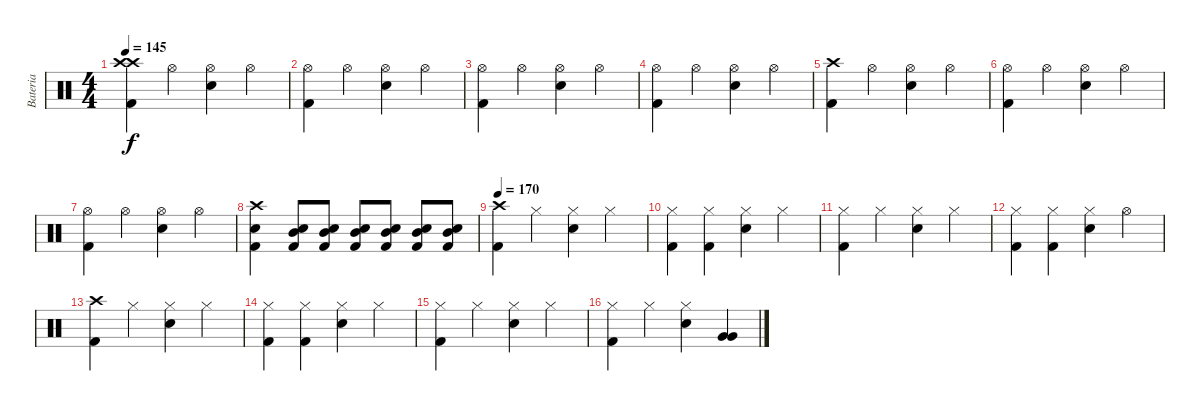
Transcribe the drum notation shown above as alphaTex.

\track ("Bateria" "Bateria") {instrument percussion}
\staff {score}
\articulation defaults
\ts (4 4)
\tempo 145
\clef neutral
\ks c
("Crash high (hit)" "Crash high (hit)" "Kick (hit) 2").4{dy f} "Hi-Hat (open)".4 ("Hi-Hat (open)" "Electric Snare (hit)").4 "Hi-Hat (open)".4 |
("Hi-Hat (open)" "Kick (hit) 2").4 "Hi-Hat (open)".4 ("Hi-Hat (open)" "Electric Snare (hit)").4 "Hi-Hat (open)".4 |
("Hi-Hat (open)" "Kick (hit) 2").4 "Hi-Hat (open)".4 ("Hi-Hat (open)" "Electric Snare (hit)").4 "Hi-Hat (open)".4 |
("Hi-Hat (open)" "Kick (hit) 2").4 "Hi-Hat (open)".4 ("Hi-Hat (open)" "Electric Snare (hit)").4 "Hi-Hat (open)".4 |
("Crash high (hit)" "Kick (hit) 2").4 "Hi-Hat (open)".4 ("Hi-Hat (open)" "Electric Snare (hit)").4 "Hi-Hat (open)".4 |
("Hi-Hat (open)" "Kick (hit) 2").4 "Hi-Hat (open)".4 ("Hi-Hat (open)" "Electric Snare (hit)").4 "Hi-Hat (open)".4 |
("Hi-Hat (open)" "Kick (hit) 2").4 "Hi-Hat (open)".4 ("Hi-Hat (open)" "Electric Snare (hit)").4 "Hi-Hat (open)".4 |
("Crash high (hit)" "Electric Snare (hit)" "Kick (hit) 2").4 ("Mid Tom (hit)" "Kick (hit) 2" "Electric Snare (hit)").8 ("Mid Tom (hit)" "Kick (hit) 2" "Electric Snare (hit)").8 ("Mid Tom (hit)" "Kick (hit) 2" "Electric Snare (hit)").8 ("Mid Tom (hit)" "Kick (hit) 2" "Electric Snare (hit)").8 ("Mid Tom (hit)" "Kick (hit) 2" "Electric Snare (hit)").8 ("Mid Tom (hit)" "Kick (hit) 2" "Electric Snare (hit)").8 |
\tempo 170
("Crash high (hit)" "Kick (hit) 2").4 "Hi-Hat (closed)".4 ("Hi-Hat (closed)" "Electric Snare (hit)").4 "Hi-Hat (closed)".4 |
("Hi-Hat (closed)" "Kick (hit) 2").4 ("Hi-Hat (closed)" "Kick (hit) 2").4 ("Hi-Hat (closed)" "Electric Snare (hit)").4 "Hi-Hat (closed)".4 |
("Hi-Hat (closed)" "Kick (hit) 2").4 "Hi-Hat (closed)".4 ("Hi-Hat (closed)" "Electric Snare (hit)").4 "Hi-Hat (closed)".4 |
("Hi-Hat (closed)" "Kick (hit) 2").4 ("Hi-Hat (closed)" "Kick (hit) 2").4 ("Hi-Hat (closed)" "Electric Snare (hit)").4 "Hi-Hat (open)".4 |
("Crash high (hit)" "Kick (hit) 2").4 "Hi-Hat (closed)".4 ("Hi-Hat (closed)" "Electric Snare (hit)").4 "Hi-Hat (closed)".4 |
("Hi-Hat (closed)" "Kick (hit) 2").4 ("Hi-Hat (closed)" "Kick (hit) 2").4 ("Hi-Hat (closed)" "Electric Snare (hit)").4 "Hi-Hat (closed)".4 |
("Hi-Hat (closed)" "Kick (hit) 2").4 "Hi-Hat (closed)".4 ("Hi-Hat (closed)" "Electric Snare (hit)").4 "Hi-Hat (closed)".4 |
("Hi-Hat (closed)" "Kick (hit) 2").4 "Hi-Hat (closed)".4 ("Hi-Hat (closed)" "Electric Snare (hit)").4 ("Very Low Tom (hit)" "Very Low Tom (hit)").4
